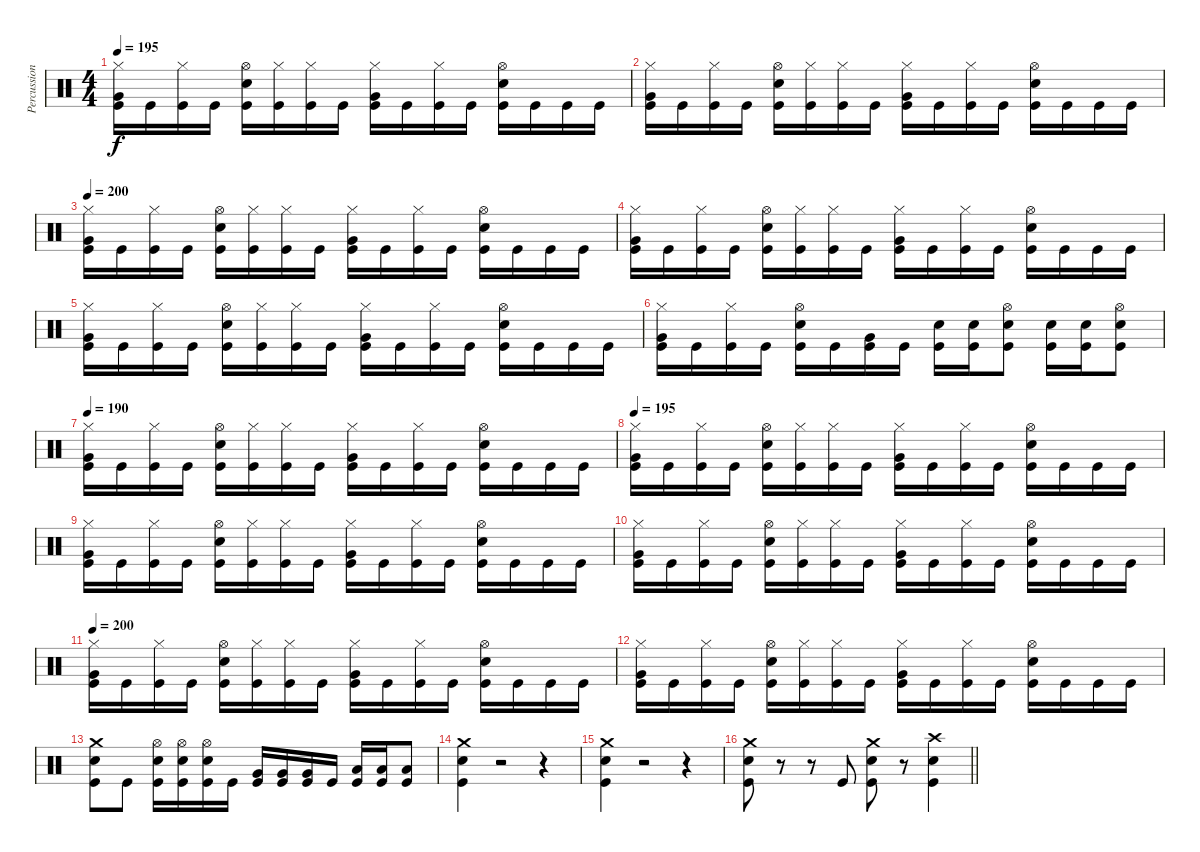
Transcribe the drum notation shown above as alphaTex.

\track ("Percussion" "Percussion") {instrument percussion}
\staff {score}
\articulation defaults
\ts (4 4)
\tempo 195
\clef neutral
\ks c
("Kick (hit)" "Very Low Tom (hit)" "Hi-Hat (closed)").16{dy f} "Kick (hit)".16 ("Kick (hit)" "Hi-Hat (closed)").16 "Kick (hit)".16 ("Kick (hit)" "Snare (hit) 2" "Hi-Hat (open)").16 ("Kick (hit)" "Hi-Hat (closed)").16 ("Kick (hit)" "Hi-Hat (closed)").16 "Kick (hit)".16 ("Kick (hit)" "Very Low Tom (hit)" "Hi-Hat (closed)").16 "Kick (hit)".16 ("Kick (hit)" "Hi-Hat (closed)").16 "Kick (hit)".16 ("Kick (hit)" "Snare (hit) 2" "Hi-Hat (open)").16 "Kick (hit)".16 "Kick (hit)".16 "Kick (hit)".16 |
("Kick (hit)" "Very Low Tom (hit)" "Hi-Hat (closed)").16 "Kick (hit)".16 ("Kick (hit)" "Hi-Hat (closed)").16 "Kick (hit)".16 ("Kick (hit)" "Snare (hit) 2" "Hi-Hat (open)").16 ("Kick (hit)" "Hi-Hat (closed)").16 ("Kick (hit)" "Hi-Hat (closed)").16 "Kick (hit)".16 ("Kick (hit)" "Very Low Tom (hit)" "Hi-Hat (closed)").16 "Kick (hit)".16 ("Kick (hit)" "Hi-Hat (closed)").16 "Kick (hit)".16 ("Kick (hit)" "Snare (hit) 2" "Hi-Hat (open)").16 "Kick (hit)".16 "Kick (hit)".16 "Kick (hit)".16 |
\tempo 200
("Kick (hit)" "Very Low Tom (hit)" "Hi-Hat (closed)").16 "Kick (hit)".16 ("Kick (hit)" "Hi-Hat (closed)").16 "Kick (hit)".16 ("Kick (hit)" "Snare (hit) 2" "Hi-Hat (open)").16 ("Kick (hit)" "Hi-Hat (closed)").16 ("Kick (hit)" "Hi-Hat (closed)").16 "Kick (hit)".16 ("Kick (hit)" "Very Low Tom (hit)" "Hi-Hat (closed)").16 "Kick (hit)".16 ("Kick (hit)" "Hi-Hat (closed)").16 "Kick (hit)".16 ("Kick (hit)" "Snare (hit) 2" "Hi-Hat (open)").16 "Kick (hit)".16 "Kick (hit)".16 "Kick (hit)".16 |
("Kick (hit)" "Very Low Tom (hit)" "Hi-Hat (closed)").16 "Kick (hit)".16 ("Kick (hit)" "Hi-Hat (closed)").16 "Kick (hit)".16 ("Kick (hit)" "Snare (hit) 2" "Hi-Hat (open)").16 ("Kick (hit)" "Hi-Hat (closed)").16 ("Kick (hit)" "Hi-Hat (closed)").16 "Kick (hit)".16 ("Kick (hit)" "Very Low Tom (hit)" "Hi-Hat (closed)").16 "Kick (hit)".16 ("Kick (hit)" "Hi-Hat (closed)").16 "Kick (hit)".16 ("Kick (hit)" "Snare (hit) 2" "Hi-Hat (open)").16 "Kick (hit)".16 "Kick (hit)".16 "Kick (hit)".16 |
("Kick (hit)" "Very Low Tom (hit)" "Hi-Hat (closed)").16 "Kick (hit)".16 ("Kick (hit)" "Hi-Hat (closed)").16 "Kick (hit)".16 ("Kick (hit)" "Snare (hit) 2" "Hi-Hat (open)").16 ("Kick (hit)" "Hi-Hat (closed)").16 ("Kick (hit)" "Hi-Hat (closed)").16 "Kick (hit)".16 ("Kick (hit)" "Very Low Tom (hit)" "Hi-Hat (closed)").16 "Kick (hit)".16 ("Kick (hit)" "Hi-Hat (closed)").16 "Kick (hit)".16 ("Kick (hit)" "Snare (hit) 2" "Hi-Hat (open)").16 "Kick (hit)".16 "Kick (hit)".16 "Kick (hit)".16 |
("Kick (hit)" "Very Low Tom (hit)" "Hi-Hat (closed)").16 "Kick (hit)".16 ("Kick (hit)" "Hi-Hat (closed)").16 "Kick (hit)".16 ("Kick (hit)" "Snare (hit) 2" "Hi-Hat (open)").16 "Kick (hit)".16 ("Kick (hit)" "Very Low Tom (hit)").16 "Kick (hit)".16 ("Kick (hit)" "Snare (hit) 2").16 ("Kick (hit)" "Snare (hit) 2").16 ("Kick (hit)" "Snare (hit) 2" "Hi-Hat (open)").8 ("Kick (hit)" "Snare (hit) 2").16 ("Kick (hit)" "Snare (hit) 2").16 ("Kick (hit)" "Snare (hit) 2" "Hi-Hat (open)").8 |
\tempo 190
("Kick (hit)" "Very Low Tom (hit)" "Hi-Hat (closed)").16 "Kick (hit)".16 ("Kick (hit)" "Hi-Hat (closed)").16 "Kick (hit)".16 ("Kick (hit)" "Snare (hit) 2" "Hi-Hat (open)").16 ("Kick (hit)" "Hi-Hat (closed)").16 ("Kick (hit)" "Hi-Hat (closed)").16 "Kick (hit)".16 ("Kick (hit)" "Very Low Tom (hit)" "Hi-Hat (closed)").16 "Kick (hit)".16 ("Kick (hit)" "Hi-Hat (closed)").16 "Kick (hit)".16 ("Kick (hit)" "Snare (hit) 2" "Hi-Hat (open)").16 "Kick (hit)".16 "Kick (hit)".16 "Kick (hit)".16 |
\tempo 195
("Kick (hit)" "Very Low Tom (hit)" "Hi-Hat (closed)").16 "Kick (hit)".16 ("Kick (hit)" "Hi-Hat (closed)").16 "Kick (hit)".16 ("Kick (hit)" "Snare (hit) 2" "Hi-Hat (open)").16 ("Kick (hit)" "Hi-Hat (closed)").16 ("Kick (hit)" "Hi-Hat (closed)").16 "Kick (hit)".16 ("Kick (hit)" "Very Low Tom (hit)" "Hi-Hat (closed)").16 "Kick (hit)".16 ("Kick (hit)" "Hi-Hat (closed)").16 "Kick (hit)".16 ("Kick (hit)" "Snare (hit) 2" "Hi-Hat (open)").16 "Kick (hit)".16 "Kick (hit)".16 "Kick (hit)".16 |
("Kick (hit)" "Very Low Tom (hit)" "Hi-Hat (closed)").16 "Kick (hit)".16 ("Kick (hit)" "Hi-Hat (closed)").16 "Kick (hit)".16 ("Kick (hit)" "Snare (hit) 2" "Hi-Hat (open)").16 ("Kick (hit)" "Hi-Hat (closed)").16 ("Kick (hit)" "Hi-Hat (closed)").16 "Kick (hit)".16 ("Kick (hit)" "Very Low Tom (hit)" "Hi-Hat (closed)").16 "Kick (hit)".16 ("Kick (hit)" "Hi-Hat (closed)").16 "Kick (hit)".16 ("Kick (hit)" "Snare (hit) 2" "Hi-Hat (open)").16 "Kick (hit)".16 "Kick (hit)".16 "Kick (hit)".16 |
("Kick (hit)" "Very Low Tom (hit)" "Hi-Hat (closed)").16 "Kick (hit)".16 ("Kick (hit)" "Hi-Hat (closed)").16 "Kick (hit)".16 ("Kick (hit)" "Snare (hit) 2" "Hi-Hat (open)").16 ("Kick (hit)" "Hi-Hat (closed)").16 ("Kick (hit)" "Hi-Hat (closed)").16 "Kick (hit)".16 ("Kick (hit)" "Very Low Tom (hit)" "Hi-Hat (closed)").16 "Kick (hit)".16 ("Kick (hit)" "Hi-Hat (closed)").16 "Kick (hit)".16 ("Kick (hit)" "Snare (hit) 2" "Hi-Hat (open)").16 "Kick (hit)".16 "Kick (hit)".16 "Kick (hit)".16 |
\tempo 200
("Kick (hit)" "Very Low Tom (hit)" "Hi-Hat (closed)").16 "Kick (hit)".16 ("Kick (hit)" "Hi-Hat (closed)").16 "Kick (hit)".16 ("Kick (hit)" "Snare (hit) 2" "Hi-Hat (open)").16 ("Kick (hit)" "Hi-Hat (closed)").16 ("Kick (hit)" "Hi-Hat (closed)").16 "Kick (hit)".16 ("Kick (hit)" "Very Low Tom (hit)" "Hi-Hat (closed)").16 "Kick (hit)".16 ("Kick (hit)" "Hi-Hat (closed)").16 "Kick (hit)".16 ("Kick (hit)" "Snare (hit) 2" "Hi-Hat (open)").16 "Kick (hit)".16 "Kick (hit)".16 "Kick (hit)".16 |
("Kick (hit)" "Very Low Tom (hit)" "Hi-Hat (closed)").16 "Kick (hit)".16 ("Kick (hit)" "Hi-Hat (closed)").16 "Kick (hit)".16 ("Kick (hit)" "Snare (hit) 2" "Hi-Hat (open)").16 ("Kick (hit)" "Hi-Hat (closed)").16 ("Kick (hit)" "Hi-Hat (closed)").16 "Kick (hit)".16 ("Kick (hit)" "Very Low Tom (hit)" "Hi-Hat (closed)").16 "Kick (hit)".16 ("Kick (hit)" "Hi-Hat (closed)").16 "Kick (hit)".16 ("Kick (hit)" "Snare (hit) 2" "Hi-Hat (open)").16 "Kick (hit)".16 "Kick (hit)".16 "Kick (hit)".16 |
("Kick (hit)" "Crash medium (hit)" "Snare (hit) 2").8 "Kick (hit)".8 ("Kick (hit)" "Snare (hit) 2" "Hi-Hat (open)").16 ("Kick (hit)" "Snare (hit) 2" "Hi-Hat (open)").16 ("Kick (hit)" "Snare (hit) 2" "Hi-Hat (open)").16 "Kick (hit)".16 ("Kick (hit)" "Very Low Tom (hit)").16 ("Kick (hit)" "Very Low Tom (hit)").16 ("Kick (hit)" "Very Low Tom (hit)").16 "Kick (hit)".16 ("Kick (hit)" "Low Floor Tom (hit)").16 ("Kick (hit)" "Low Floor Tom (hit)").16 ("Kick (hit)" "Low Floor Tom (hit)").8 |
("Snare (hit) 2" "Crash medium (hit)" "Kick (hit)").4 r.2 r.4 |
("Snare (hit) 2" "Crash medium (hit)" "Kick (hit)").4 r.2 r.4 |
\barLineRight lightlight
("Snare (hit) 2" "Crash medium (hit)" "Kick (hit)").8 r.8 r.8 "Kick (hit)".8 ("Snare (hit) 2" "Crash medium (hit)" "Kick (hit)").8 r.8 ("Snare (hit) 2" "Crash high (hit)" "Kick (hit)").4
